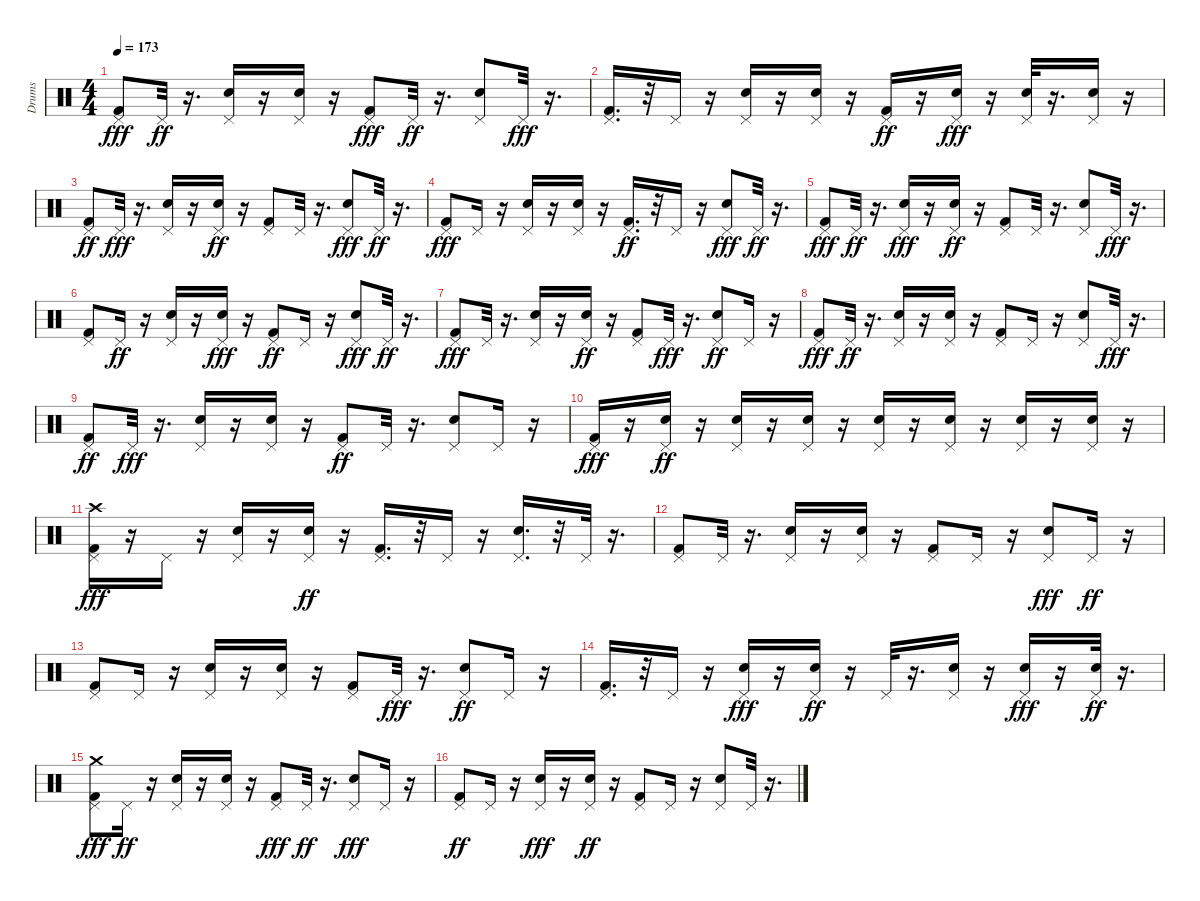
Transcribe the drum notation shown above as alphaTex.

\track ("Drums" "Drums") {instrument percussion}
\staff {score}
\articulation defaults
\ts (4 4)
\tempo 173
\clef neutral
\ks c
("Kick (hit) 2" "Pedal Hi-Hat (hit)").8{dy fff} "Pedal Hi-Hat (hit)".32{dy ff} r.16{d} ("Snare (hit) 2" "Pedal Hi-Hat (hit)").16 r.16 ("Snare (hit) 2" "Pedal Hi-Hat (hit)").16 r.16 ("Kick (hit) 2" "Pedal Hi-Hat (hit)").8{dy fff} "Pedal Hi-Hat (hit)".32{dy ff} r.16{d} ("Snare (hit) 2" "Pedal Hi-Hat (hit)").8 "Pedal Hi-Hat (hit)".32{dy fff} r.16{d} |
("Kick (hit) 2" "Pedal Hi-Hat (hit)").16{d} r.32 "Pedal Hi-Hat (hit)".16 r.16 ("Snare (hit) 2" "Pedal Hi-Hat (hit)").16 r.16 ("Snare (hit) 2" "Pedal Hi-Hat (hit)").16 r.16 ("Kick (hit) 2" "Pedal Hi-Hat (hit)").16{dy ff} r.16 ("Snare (hit) 2" "Pedal Hi-Hat (hit)").16{dy fff} r.16 ("Snare (hit) 2" "Pedal Hi-Hat (hit)").32 r.16{d} ("Snare (hit) 2" "Pedal Hi-Hat (hit)").16 r.16 |
("Kick (hit) 2" "Pedal Hi-Hat (hit)").8{dy ff} "Pedal Hi-Hat (hit)".32{dy fff} r.16{d} ("Snare (hit) 2" "Pedal Hi-Hat (hit)").16 r.16 ("Snare (hit) 2" "Pedal Hi-Hat (hit)").16{dy ff} r.16 ("Kick (hit) 2" "Pedal Hi-Hat (hit)").8 "Pedal Hi-Hat (hit)".32 r.16{d} ("Snare (hit) 2" "Pedal Hi-Hat (hit)").8{dy fff} "Pedal Hi-Hat (hit)".32{dy ff} r.16{d} |
("Kick (hit) 2" "Pedal Hi-Hat (hit)").8{dy fff} "Pedal Hi-Hat (hit)".16 r.16 ("Snare (hit) 2" "Pedal Hi-Hat (hit)").16 r.16 ("Snare (hit) 2" "Pedal Hi-Hat (hit)").16 r.16 ("Kick (hit) 2" "Pedal Hi-Hat (hit)").16{d dy ff} r.32 "Pedal Hi-Hat (hit)".16 r.16 ("Snare (hit) 2" "Pedal Hi-Hat (hit)").8{dy fff} "Pedal Hi-Hat (hit)".32{dy ff} r.16{d} |
("Kick (hit) 2" "Pedal Hi-Hat (hit)").8{dy fff} "Pedal Hi-Hat (hit)".32{dy ff} r.16{d} ("Snare (hit) 2" "Pedal Hi-Hat (hit)").16{dy fff} r.16 ("Snare (hit) 2" "Pedal Hi-Hat (hit)").16{dy ff} r.16 ("Kick (hit) 2" "Pedal Hi-Hat (hit)").8 "Pedal Hi-Hat (hit)".32 r.16{d} ("Snare (hit) 2" "Pedal Hi-Hat (hit)").8 "Pedal Hi-Hat (hit)".32{dy fff} r.16{d} |
("Kick (hit) 2" "Pedal Hi-Hat (hit)").8 "Pedal Hi-Hat (hit)".16{dy ff} r.16 ("Snare (hit) 2" "Pedal Hi-Hat (hit)").16 r.16 ("Snare (hit) 2" "Pedal Hi-Hat (hit)").16{dy fff} r.16 ("Kick (hit) 2" "Pedal Hi-Hat (hit)").8{dy ff} "Pedal Hi-Hat (hit)".16 r.16 ("Snare (hit) 2" "Pedal Hi-Hat (hit)").8{dy fff} "Pedal Hi-Hat (hit)".32{dy ff} r.16{d} |
("Kick (hit) 2" "Pedal Hi-Hat (hit)").8{dy fff} "Pedal Hi-Hat (hit)".32 r.16{d} ("Snare (hit) 2" "Pedal Hi-Hat (hit)").16 r.16 ("Snare (hit) 2" "Pedal Hi-Hat (hit)").16{dy ff} r.16 ("Kick (hit) 2" "Pedal Hi-Hat (hit)").8 "Pedal Hi-Hat (hit)".32{dy fff} r.16{d} ("Snare (hit) 2" "Pedal Hi-Hat (hit)").8{dy ff} "Pedal Hi-Hat (hit)".16 r.16 |
("Kick (hit) 2" "Pedal Hi-Hat (hit)").8{dy fff} "Pedal Hi-Hat (hit)".32{dy ff} r.16{d} ("Snare (hit) 2" "Pedal Hi-Hat (hit)").16 r.16 ("Snare (hit) 2" "Pedal Hi-Hat (hit)").16 r.16 ("Kick (hit) 2" "Pedal Hi-Hat (hit)").8 "Pedal Hi-Hat (hit)".16 r.16 ("Snare (hit) 2" "Pedal Hi-Hat (hit)").8 "Pedal Hi-Hat (hit)".32{dy fff} r.16{d} |
("Kick (hit) 2" "Pedal Hi-Hat (hit)").8{dy ff} "Pedal Hi-Hat (hit)".32{dy fff} r.16{d} ("Snare (hit) 2" "Pedal Hi-Hat (hit)").16 r.16 ("Snare (hit) 2" "Pedal Hi-Hat (hit)").16 r.16 ("Kick (hit) 2" "Pedal Hi-Hat (hit)").8{dy ff} "Pedal Hi-Hat (hit)".32 r.16{d} ("Snare (hit) 2" "Pedal Hi-Hat (hit)").8 "Pedal Hi-Hat (hit)".16 r.16 |
("Kick (hit) 2" "Pedal Hi-Hat (hit)").16{dy fff} r.16 ("Snare (hit) 2" "Pedal Hi-Hat (hit)").16{dy ff} r.16 ("Snare (hit) 2" "Pedal Hi-Hat (hit)").16 r.16 ("Snare (hit) 2" "Pedal Hi-Hat (hit)").16 r.16 ("Snare (hit) 2" "Pedal Hi-Hat (hit)").16 r.16 ("Snare (hit) 2" "Pedal Hi-Hat (hit)").16 r.16 ("Snare (hit) 2" "Pedal Hi-Hat (hit)").16 r.16 ("Snare (hit) 2" "Pedal Hi-Hat (hit)").16 r.16 |
("Kick (hit) 2" "Pedal Hi-Hat (hit)" "Crash high (hit)").16{dy fff} r.16 "Pedal Hi-Hat (hit)".16 r.16 ("Snare (hit) 2" "Pedal Hi-Hat (hit)").16 r.16 ("Snare (hit) 2" "Pedal Hi-Hat (hit)").16{dy ff} r.16 ("Kick (hit) 2" "Pedal Hi-Hat (hit)").16{d} r.32 "Pedal Hi-Hat (hit)".16 r.16 ("Snare (hit) 2" "Pedal Hi-Hat (hit)").16{d} r.32 "Pedal Hi-Hat (hit)".32 r.16{d} |
("Kick (hit) 2" "Pedal Hi-Hat (hit)").8 "Pedal Hi-Hat (hit)".32 r.16{d} ("Snare (hit) 2" "Pedal Hi-Hat (hit)").16 r.16 ("Snare (hit) 2" "Pedal Hi-Hat (hit)").16 r.16 ("Kick (hit) 2" "Pedal Hi-Hat (hit)").8 "Pedal Hi-Hat (hit)".16 r.16 ("Snare (hit) 2" "Pedal Hi-Hat (hit)").8{dy fff} "Pedal Hi-Hat (hit)".16{dy ff} r.16 |
("Kick (hit) 2" "Pedal Hi-Hat (hit)").8 "Pedal Hi-Hat (hit)".16 r.16 ("Snare (hit) 2" "Pedal Hi-Hat (hit)").16 r.16 ("Snare (hit) 2" "Pedal Hi-Hat (hit)").16 r.16 ("Kick (hit) 2" "Pedal Hi-Hat (hit)").8 "Pedal Hi-Hat (hit)".32{dy fff} r.16{d} ("Snare (hit) 2" "Pedal Hi-Hat (hit)").8{dy ff} "Pedal Hi-Hat (hit)".16 r.16 |
("Kick (hit) 2" "Pedal Hi-Hat (hit)").16{d} r.32 "Pedal Hi-Hat (hit)".16 r.16 ("Snare (hit) 2" "Pedal Hi-Hat (hit)").16{dy fff} r.16 ("Snare (hit) 2" "Pedal Hi-Hat (hit)").16{dy ff} r.16 "Pedal Hi-Hat (hit)".32 r.16{d} ("Snare (hit) 2" "Pedal Hi-Hat (hit)").16 r.16 ("Snare (hit) 2" "Pedal Hi-Hat (hit)").16{dy fff} r.16 ("Snare (hit) 2" "Pedal Hi-Hat (hit)").32{dy ff} r.16{d} |
("Kick (hit) 2" "Pedal Hi-Hat (hit)" "Crash medium (hit)").8{dy fff} "Pedal Hi-Hat (hit)".16{dy ff} r.16 ("Snare (hit) 2" "Pedal Hi-Hat (hit)").16 r.16 ("Snare (hit) 2" "Pedal Hi-Hat (hit)").16 r.16 ("Kick (hit) 2" "Pedal Hi-Hat (hit)").8{dy fff} "Pedal Hi-Hat (hit)".32{dy ff} r.16{d} ("Snare (hit) 2" "Pedal Hi-Hat (hit)").8{dy fff} "Pedal Hi-Hat (hit)".16 r.16 |
("Kick (hit) 2" "Pedal Hi-Hat (hit)").8{dy ff} "Pedal Hi-Hat (hit)".16 r.16 ("Snare (hit) 2" "Pedal Hi-Hat (hit)").16{dy fff} r.16 ("Snare (hit) 2" "Pedal Hi-Hat (hit)").16{dy ff} r.16 ("Kick (hit) 2" "Pedal Hi-Hat (hit)").8 "Pedal Hi-Hat (hit)".16 r.16 ("Snare (hit) 2" "Pedal Hi-Hat (hit)").8 "Pedal Hi-Hat (hit)".32 r.16{d}
